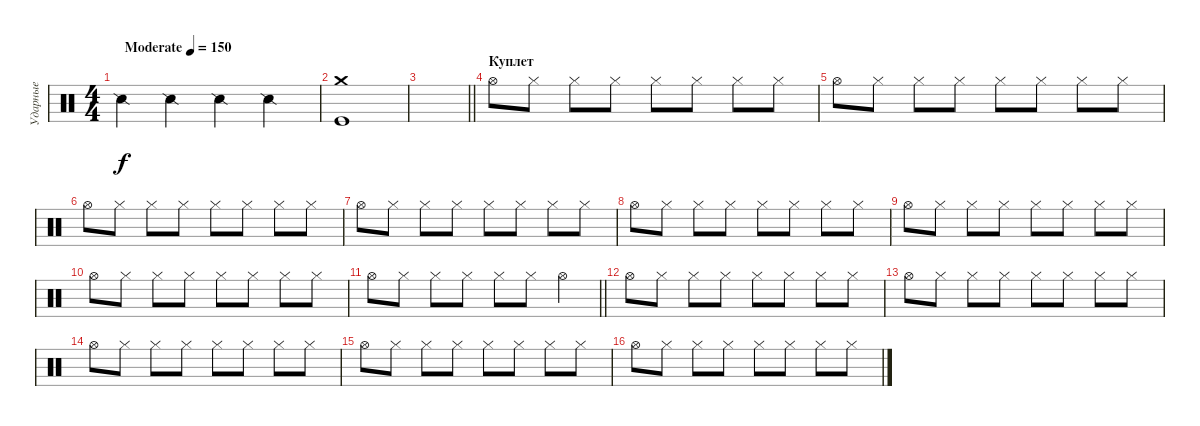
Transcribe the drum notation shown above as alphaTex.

\track ("Ударные" "Ударные") {instrument percussion}
\staff {score}
\articulation defaults
\ts (4 4)
\tempo (150 "Moderate")
\clef neutral
\ks c "Snare (side stick) 2".4{dy f} "Snare (side stick) 2".4 "Snare (side stick) 2".4 "Snare (side stick) 2".4
|
("Crash medium (hit)" "Kick (hit)").1 |
\barLineRight lightlight
|
\section ("" "Куплет")
"Hi-Hat (open)".8 "Hi-Hat (closed)".8 "Hi-Hat (closed)".8 "Hi-Hat (closed)".8 "Hi-Hat (closed)".8 "Hi-Hat (closed)".8 "Hi-Hat (closed)".8 "Hi-Hat (closed)".8 |
"Hi-Hat (open)".8 "Hi-Hat (closed)".8 "Hi-Hat (closed)".8 "Hi-Hat (closed)".8 "Hi-Hat (closed)".8 "Hi-Hat (closed)".8 "Hi-Hat (closed)".8 "Hi-Hat (closed)".8 |
"Hi-Hat (open)".8 "Hi-Hat (closed)".8 "Hi-Hat (closed)".8 "Hi-Hat (closed)".8 "Hi-Hat (closed)".8 "Hi-Hat (closed)".8 "Hi-Hat (closed)".8 "Hi-Hat (closed)".8 |
"Hi-Hat (open)".8 "Hi-Hat (closed)".8 "Hi-Hat (closed)".8 "Hi-Hat (closed)".8 "Hi-Hat (closed)".8 "Hi-Hat (closed)".8 "Hi-Hat (closed)".8 "Hi-Hat (closed)".8 |
"Hi-Hat (open)".8 "Hi-Hat (closed)".8 "Hi-Hat (closed)".8 "Hi-Hat (closed)".8 "Hi-Hat (closed)".8 "Hi-Hat (closed)".8 "Hi-Hat (closed)".8 "Hi-Hat (closed)".8 |
"Hi-Hat (open)".8 "Hi-Hat (closed)".8 "Hi-Hat (closed)".8 "Hi-Hat (closed)".8 "Hi-Hat (closed)".8 "Hi-Hat (closed)".8 "Hi-Hat (closed)".8 "Hi-Hat (closed)".8 |
"Hi-Hat (open)".8 "Hi-Hat (closed)".8 "Hi-Hat (closed)".8 "Hi-Hat (closed)".8 "Hi-Hat (closed)".8 "Hi-Hat (closed)".8 "Hi-Hat (closed)".8 "Hi-Hat (closed)".8 |
\barLineRight lightlight "Hi-Hat (open)".8 "Hi-Hat (closed)".8 "Hi-Hat (closed)".8 "Hi-Hat (closed)".8 "Hi-Hat (closed)".8 "Hi-Hat (closed)".8 "Hi-Hat (open)".4
|
\section ("" " ")
"Hi-Hat (open)".8 "Hi-Hat (closed)".8 "Hi-Hat (closed)".8 "Hi-Hat (closed)".8 "Hi-Hat (closed)".8 "Hi-Hat (closed)".8 "Hi-Hat (closed)".8 "Hi-Hat (closed)".8 |
"Hi-Hat (open)".8 "Hi-Hat (closed)".8 "Hi-Hat (closed)".8 "Hi-Hat (closed)".8 "Hi-Hat (closed)".8 "Hi-Hat (closed)".8 "Hi-Hat (closed)".8 "Hi-Hat (closed)".8 |
"Hi-Hat (open)".8 "Hi-Hat (closed)".8 "Hi-Hat (closed)".8 "Hi-Hat (closed)".8 "Hi-Hat (closed)".8 "Hi-Hat (closed)".8 "Hi-Hat (closed)".8 "Hi-Hat (closed)".8 |
"Hi-Hat (open)".8 "Hi-Hat (closed)".8 "Hi-Hat (closed)".8 "Hi-Hat (closed)".8 "Hi-Hat (closed)".8 "Hi-Hat (closed)".8 "Hi-Hat (closed)".8 "Hi-Hat (closed)".8 |
"Hi-Hat (open)".8 "Hi-Hat (closed)".8 "Hi-Hat (closed)".8 "Hi-Hat (closed)".8 "Hi-Hat (closed)".8 "Hi-Hat (closed)".8 "Hi-Hat (closed)".8 "Hi-Hat (closed)".8
